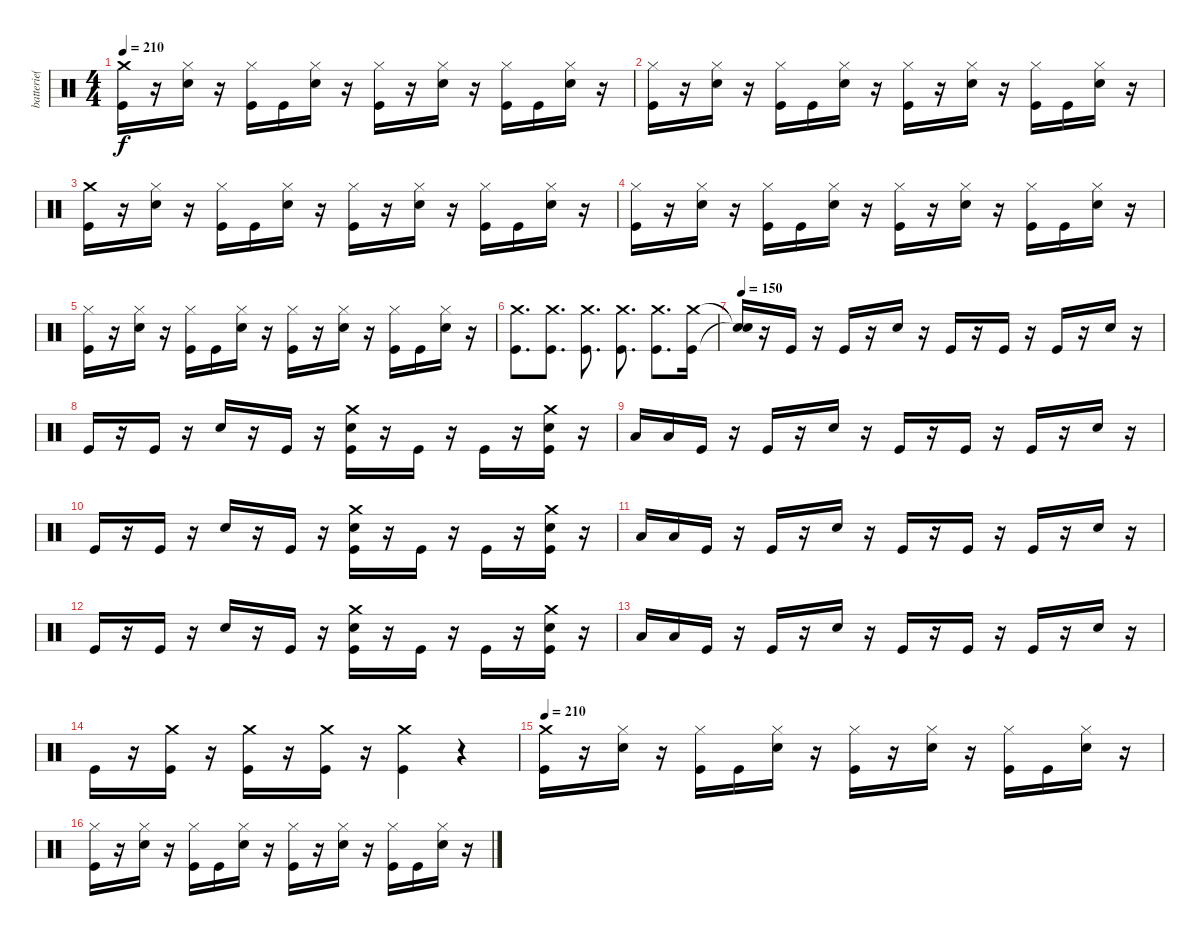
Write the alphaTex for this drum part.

\track ("batterie( Jimmy ) " "batterie( ") {instrument percussion}
\staff {score}
\articulation defaults
\ts (4 4)
\tempo 210
\clef neutral
\ks c
("Crash medium (hit)" "Kick (hit)").16{dy f} r.16 ("Hi-Hat (closed)" "Snare (hit) 2").16 r.16 ("Hi-Hat (closed)" "Kick (hit)").16 "Kick (hit)".16 ("Hi-Hat (closed)" "Snare (hit) 2").16 r.16 ("Hi-Hat (closed)" "Kick (hit)").16 r.16 ("Hi-Hat (closed)" "Snare (hit) 2").16 r.16 ("Hi-Hat (closed)" "Kick (hit)").16 "Kick (hit)".16 ("Hi-Hat (closed)" "Snare (hit) 2").16 r.16 |
("Hi-Hat (closed)" "Kick (hit)").16 r.16 ("Hi-Hat (closed)" "Snare (hit) 2").16 r.16 ("Hi-Hat (closed)" "Kick (hit)").16 "Kick (hit)".16 ("Hi-Hat (closed)" "Snare (hit) 2").16 r.16 ("Hi-Hat (closed)" "Kick (hit)").16 r.16 ("Hi-Hat (closed)" "Snare (hit) 2").16 r.16 ("Hi-Hat (closed)" "Kick (hit)").16 "Kick (hit)".16 ("Hi-Hat (closed)" "Snare (hit) 2").16 r.16 |
("Crash medium (hit)" "Kick (hit)").16 r.16 ("Hi-Hat (closed)" "Snare (hit) 2").16 r.16 ("Hi-Hat (closed)" "Kick (hit)").16 "Kick (hit)".16 ("Hi-Hat (closed)" "Snare (hit) 2").16 r.16 ("Hi-Hat (closed)" "Kick (hit)").16 r.16 ("Hi-Hat (closed)" "Snare (hit) 2").16 r.16 ("Hi-Hat (closed)" "Kick (hit)").16 "Kick (hit)".16 ("Hi-Hat (closed)" "Snare (hit) 2").16 r.16 |
("Hi-Hat (closed)" "Kick (hit)").16 r.16 ("Hi-Hat (closed)" "Snare (hit) 2").16 r.16 ("Hi-Hat (closed)" "Kick (hit)").16 "Kick (hit)".16 ("Hi-Hat (closed)" "Snare (hit) 2").16 r.16 ("Hi-Hat (closed)" "Kick (hit)").16 r.16 ("Hi-Hat (closed)" "Snare (hit) 2").16 r.16 ("Hi-Hat (closed)" "Kick (hit)").16 "Kick (hit)".16 ("Hi-Hat (closed)" "Snare (hit) 2").16 r.16 |
("Hi-Hat (closed)" "Kick (hit)").16 r.16 ("Hi-Hat (closed)" "Snare (hit) 2").16 r.16 ("Hi-Hat (closed)" "Kick (hit)").16 "Kick (hit)".16 ("Hi-Hat (closed)" "Snare (hit) 2").16 r.16 ("Hi-Hat (closed)" "Kick (hit)").16 r.16 ("Hi-Hat (closed)" "Snare (hit) 2").16 r.16 ("Hi-Hat (closed)" "Kick (hit)").16 "Kick (hit)".16 ("Hi-Hat (closed)" "Snare (hit) 2").16 r.16 |
("Crash medium (hit)" "Kick (hit)").8{d} ("Crash medium (hit)" "Kick (hit)").8{d} ("Crash medium (hit)" "Kick (hit)").8{d} ("Crash medium (hit)" "Kick (hit)").8{d} ("Crash medium (hit)" "Kick (hit)").8{d} ("Crash medium (hit)" "Kick (hit)").16 |
\tempo 150
("Snare (hit)"{t} "Snare (hit)"{t}).16 r.16 "Kick (hit)".16 r.16 "Kick (hit)".16 r.16 "Snare (hit) 2".16 r.16 "Kick (hit)".16 r.16 "Kick (hit)".16 r.16 "Kick (hit)".16 r.16 "Snare (hit) 2".16 r.16 |
"Kick (hit)".16 r.16 "Kick (hit)".16 r.16 "Snare (hit) 2".16 r.16 "Kick (hit)".16 r.16 ("Crash medium (hit)" "Snare (hit) 2" "Kick (hit)").16 r.16 "Kick (hit)".16 r.16 "Kick (hit)".16 r.16 ("Crash medium (hit)" "Snare (hit) 2" "Kick (hit)").16 r.16 |
"Low Floor Tom (hit)".16 "Low Floor Tom (hit)".16 "Kick (hit)".16 r.16 "Kick (hit)".16 r.16 "Snare (hit) 2".16 r.16 "Kick (hit)".16 r.16 "Kick (hit)".16 r.16 "Kick (hit)".16 r.16 "Snare (hit) 2".16 r.16 |
"Kick (hit)".16 r.16 "Kick (hit)".16 r.16 "Snare (hit) 2".16 r.16 "Kick (hit)".16 r.16 ("Crash medium (hit)" "Snare (hit) 2" "Kick (hit)").16 r.16 "Kick (hit)".16 r.16 "Kick (hit)".16 r.16 ("Crash medium (hit)" "Snare (hit) 2" "Kick (hit)").16 r.16 |
"Low Floor Tom (hit)".16 "Low Floor Tom (hit)".16 "Kick (hit)".16 r.16 "Kick (hit)".16 r.16 "Snare (hit) 2".16 r.16 "Kick (hit)".16 r.16 "Kick (hit)".16 r.16 "Kick (hit)".16 r.16 "Snare (hit) 2".16 r.16 |
"Kick (hit)".16 r.16 "Kick (hit)".16 r.16 "Snare (hit) 2".16 r.16 "Kick (hit)".16 r.16 ("Crash medium (hit)" "Snare (hit) 2" "Kick (hit)").16 r.16 "Kick (hit)".16 r.16 "Kick (hit)".16 r.16 ("Crash medium (hit)" "Snare (hit) 2" "Kick (hit)").16 r.16 |
"Low Floor Tom (hit)".16 "Low Floor Tom (hit)".16 "Kick (hit)".16 r.16 "Kick (hit)".16 r.16 "Snare (hit) 2".16 r.16 "Kick (hit)".16 r.16 "Kick (hit)".16 r.16 "Kick (hit)".16 r.16 "Snare (hit) 2".16 r.16 |
"Kick (hit)".16 r.16 ("Crash medium (hit)" "Kick (hit)").16 r.16 ("Crash medium (hit)" "Kick (hit)").16 r.16 ("Crash medium (hit)" "Kick (hit)").16 r.16 ("Crash medium (hit)" "Kick (hit)").4 r.4 |
\tempo 210
("Crash medium (hit)" "Kick (hit)").16 r.16 ("Hi-Hat (closed)" "Snare (hit) 2").16 r.16 ("Hi-Hat (closed)" "Kick (hit)").16 "Kick (hit)".16 ("Hi-Hat (closed)" "Snare (hit) 2").16 r.16 ("Hi-Hat (closed)" "Kick (hit)").16 r.16 ("Hi-Hat (closed)" "Snare (hit) 2").16 r.16 ("Hi-Hat (closed)" "Kick (hit)").16 "Kick (hit)".16 ("Hi-Hat (closed)" "Snare (hit) 2").16 r.16 |
("Hi-Hat (closed)" "Kick (hit)").16 r.16 ("Hi-Hat (closed)" "Snare (hit) 2").16 r.16 ("Hi-Hat (closed)" "Kick (hit)").16 "Kick (hit)".16 ("Hi-Hat (closed)" "Snare (hit) 2").16 r.16 ("Hi-Hat (closed)" "Kick (hit)").16 r.16 ("Hi-Hat (closed)" "Snare (hit) 2").16 r.16 ("Hi-Hat (closed)" "Kick (hit)").16 "Kick (hit)".16 ("Hi-Hat (closed)" "Snare (hit) 2").16 r.16
